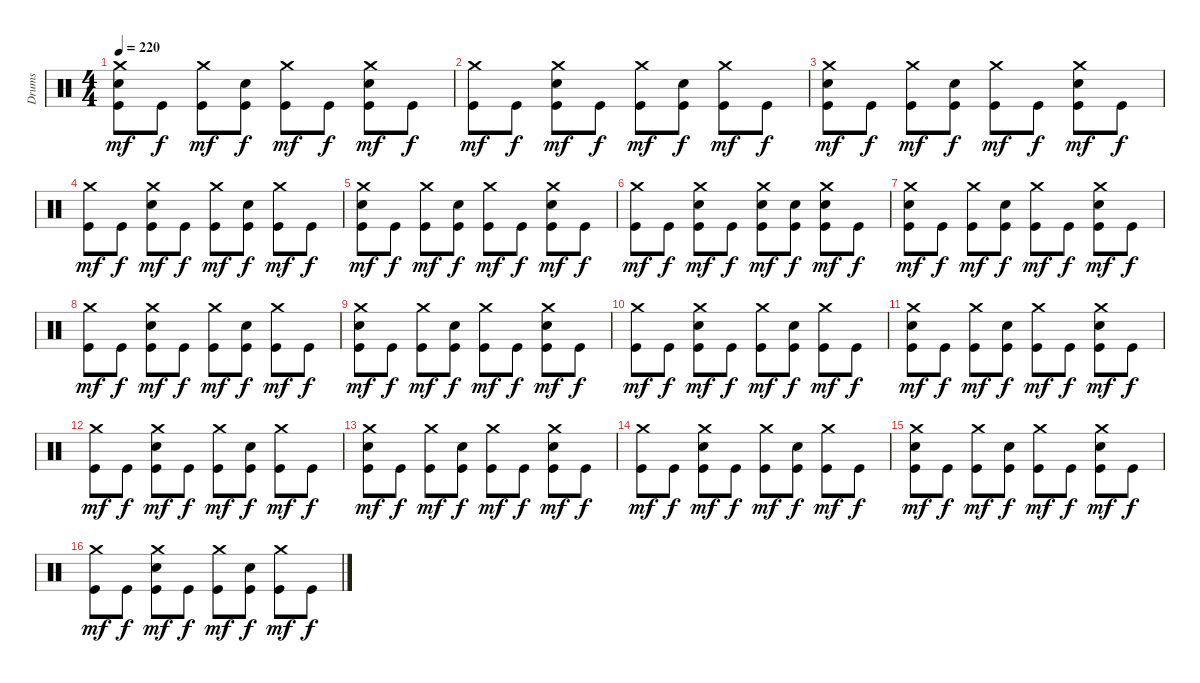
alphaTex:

\track ("Drums" "Drums") {instrument percussion}
\staff {score}
\articulation defaults
\ts (4 4)
\tempo 220
\clef neutral
\ks c
("Crash medium (hit)" "Electric Snare (hit)" "Kick (hit)").8{dy mf} "Kick (hit)".8{dy f} ("Crash medium (hit)" "Kick (hit)").8{dy mf} ("Electric Snare (hit)" "Kick (hit)").8{dy f} ("Crash medium (hit)" "Kick (hit)").8{dy mf} "Kick (hit)".8{dy f} ("Crash medium (hit)" "Electric Snare (hit)" "Kick (hit)").8{dy mf} "Kick (hit)".8{dy f} |
("Crash medium (hit)" "Kick (hit)").8{dy mf} "Kick (hit)".8{dy f} ("Crash medium (hit)" "Electric Snare (hit)" "Kick (hit)").8{dy mf} "Kick (hit)".8{dy f} ("Crash medium (hit)" "Kick (hit)").8{dy mf} ("Electric Snare (hit)" "Kick (hit)").8{dy f} ("Crash medium (hit)" "Kick (hit)").8{dy mf} "Kick (hit)".8{dy f} |
("Crash medium (hit)" "Electric Snare (hit)" "Kick (hit)").8{dy mf} "Kick (hit)".8{dy f} ("Crash medium (hit)" "Kick (hit)").8{dy mf} ("Electric Snare (hit)" "Kick (hit)").8{dy f} ("Crash medium (hit)" "Kick (hit)").8{dy mf} "Kick (hit)".8{dy f} ("Crash medium (hit)" "Electric Snare (hit)" "Kick (hit)").8{dy mf} "Kick (hit)".8{dy f} |
("Crash medium (hit)" "Kick (hit)").8{dy mf} "Kick (hit)".8{dy f} ("Crash medium (hit)" "Electric Snare (hit)" "Kick (hit)").8{dy mf} "Kick (hit)".8{dy f} ("Crash medium (hit)" "Kick (hit)").8{dy mf} ("Electric Snare (hit)" "Kick (hit)").8{dy f} ("Crash medium (hit)" "Kick (hit)").8{dy mf} "Kick (hit)".8{dy f} |
("Crash medium (hit)" "Electric Snare (hit)" "Kick (hit)").8{dy mf} "Kick (hit)".8{dy f} ("Crash medium (hit)" "Kick (hit)").8{dy mf} ("Electric Snare (hit)" "Kick (hit)").8{dy f} ("Crash medium (hit)" "Kick (hit)").8{dy mf} "Kick (hit)".8{dy f} ("Crash medium (hit)" "Electric Snare (hit)" "Kick (hit)").8{dy mf} "Kick (hit)".8{dy f} |
("Crash medium (hit)" "Kick (hit)").8{dy mf} "Kick (hit)".8{dy f} ("Crash medium (hit)" "Electric Snare (hit)" "Kick (hit)").8{dy mf} "Kick (hit)".8{dy f} ("Crash medium (hit)" "Electric Snare (hit)" "Kick (hit)").8{dy mf} ("Electric Snare (hit)" "Kick (hit)").8{dy f} ("Crash medium (hit)" "Electric Snare (hit)" "Kick (hit)").8{dy mf} "Kick (hit)".8{dy f} |
("Crash medium (hit)" "Electric Snare (hit)" "Kick (hit)").8{dy mf} "Kick (hit)".8{dy f} ("Crash medium (hit)" "Kick (hit)").8{dy mf} ("Electric Snare (hit)" "Kick (hit)").8{dy f} ("Crash medium (hit)" "Kick (hit)").8{dy mf} "Kick (hit)".8{dy f} ("Crash medium (hit)" "Electric Snare (hit)" "Kick (hit)").8{dy mf} "Kick (hit)".8{dy f} |
("Crash medium (hit)" "Kick (hit)").8{dy mf} "Kick (hit)".8{dy f} ("Crash medium (hit)" "Electric Snare (hit)" "Kick (hit)").8{dy mf} "Kick (hit)".8{dy f} ("Crash medium (hit)" "Kick (hit)").8{dy mf} ("Electric Snare (hit)" "Kick (hit)").8{dy f} ("Crash medium (hit)" "Kick (hit)").8{dy mf} "Kick (hit)".8{dy f} |
("Crash medium (hit)" "Electric Snare (hit)" "Kick (hit)").8{dy mf} "Kick (hit)".8{dy f} ("Crash medium (hit)" "Kick (hit)").8{dy mf} ("Electric Snare (hit)" "Kick (hit)").8{dy f} ("Crash medium (hit)" "Kick (hit)").8{dy mf} "Kick (hit)".8{dy f} ("Crash medium (hit)" "Electric Snare (hit)" "Kick (hit)").8{dy mf} "Kick (hit)".8{dy f} |
("Crash medium (hit)" "Kick (hit)").8{dy mf} "Kick (hit)".8{dy f} ("Crash medium (hit)" "Electric Snare (hit)" "Kick (hit)").8{dy mf} "Kick (hit)".8{dy f} ("Crash medium (hit)" "Kick (hit)").8{dy mf} ("Electric Snare (hit)" "Kick (hit)").8{dy f} ("Crash medium (hit)" "Kick (hit)").8{dy mf} "Kick (hit)".8{dy f} |
("Crash medium (hit)" "Electric Snare (hit)" "Kick (hit)").8{dy mf} "Kick (hit)".8{dy f} ("Crash medium (hit)" "Kick (hit)").8{dy mf} ("Electric Snare (hit)" "Kick (hit)").8{dy f} ("Crash medium (hit)" "Kick (hit)").8{dy mf} "Kick (hit)".8{dy f} ("Crash medium (hit)" "Electric Snare (hit)" "Kick (hit)").8{dy mf} "Kick (hit)".8{dy f} |
("Crash medium (hit)" "Kick (hit)").8{dy mf} "Kick (hit)".8{dy f} ("Crash medium (hit)" "Electric Snare (hit)" "Kick (hit)").8{dy mf} "Kick (hit)".8{dy f} ("Crash medium (hit)" "Kick (hit)").8{dy mf} ("Electric Snare (hit)" "Kick (hit)").8{dy f} ("Crash medium (hit)" "Kick (hit)").8{dy mf} "Kick (hit)".8{dy f} |
("Crash medium (hit)" "Electric Snare (hit)" "Kick (hit)").8{dy mf} "Kick (hit)".8{dy f} ("Crash medium (hit)" "Kick (hit)").8{dy mf} ("Electric Snare (hit)" "Kick (hit)").8{dy f} ("Crash medium (hit)" "Kick (hit)").8{dy mf} "Kick (hit)".8{dy f} ("Crash medium (hit)" "Electric Snare (hit)" "Kick (hit)").8{dy mf} "Kick (hit)".8{dy f} |
("Crash medium (hit)" "Kick (hit)").8{dy mf} "Kick (hit)".8{dy f} ("Crash medium (hit)" "Electric Snare (hit)" "Kick (hit)").8{dy mf} "Kick (hit)".8{dy f} ("Crash medium (hit)" "Kick (hit)").8{dy mf} ("Electric Snare (hit)" "Kick (hit)").8{dy f} ("Crash medium (hit)" "Kick (hit)").8{dy mf} "Kick (hit)".8{dy f} |
("Crash medium (hit)" "Electric Snare (hit)" "Kick (hit)").8{dy mf} "Kick (hit)".8{dy f} ("Crash medium (hit)" "Kick (hit)").8{dy mf} ("Electric Snare (hit)" "Kick (hit)").8{dy f} ("Crash medium (hit)" "Kick (hit)").8{dy mf} "Kick (hit)".8{dy f} ("Crash medium (hit)" "Electric Snare (hit)" "Kick (hit)").8{dy mf} "Kick (hit)".8{dy f} |
("Crash medium (hit)" "Kick (hit)").8{dy mf} "Kick (hit)".8{dy f} ("Crash medium (hit)" "Electric Snare (hit)" "Kick (hit)").8{dy mf} "Kick (hit)".8{dy f} ("Crash medium (hit)" "Kick (hit)").8{dy mf} ("Electric Snare (hit)" "Kick (hit)").8{dy f} ("Crash medium (hit)" "Kick (hit)").8{dy mf} "Kick (hit)".8{dy f}
